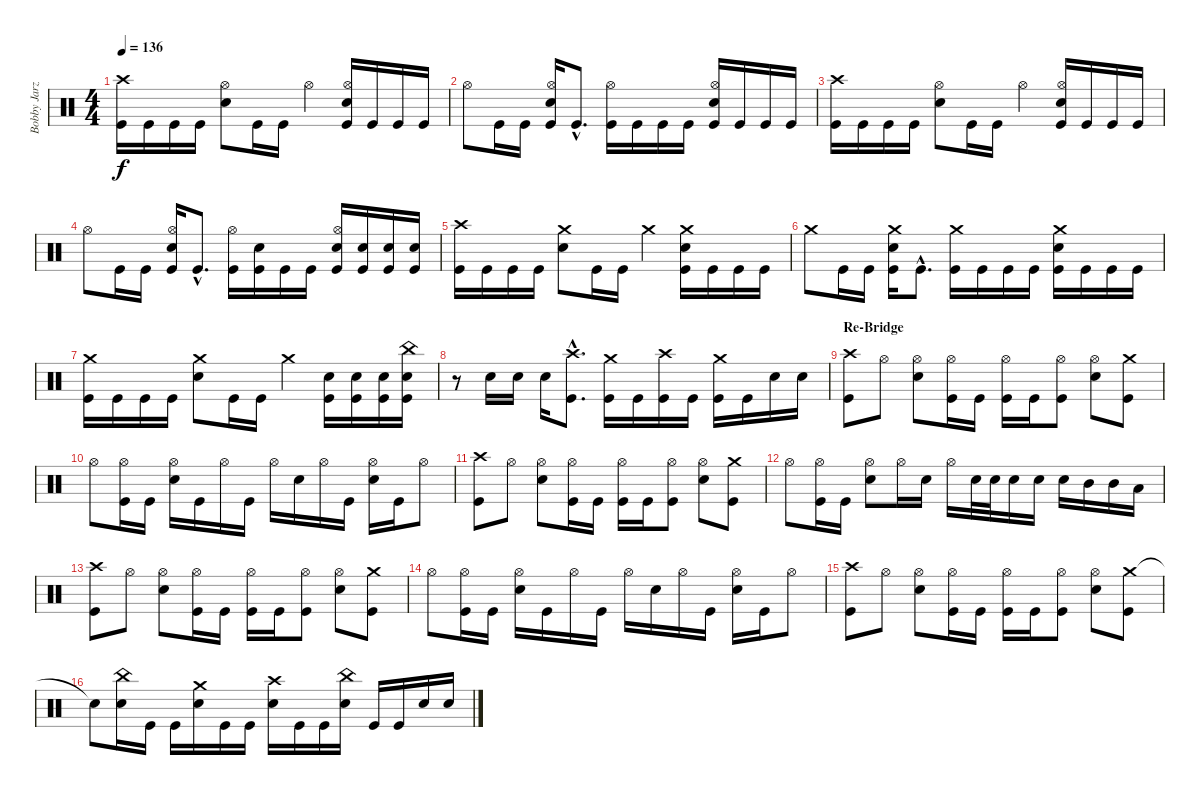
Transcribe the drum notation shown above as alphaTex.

\track ("Bobby Jarzombek" "Bobby Jarz") {instrument percussion}
\staff {score}
\articulation defaults
\ts (4 4)
\tempo 136
\clef neutral
\ks c
("Crash high (hit)" "Kick (hit)").16{dy f} "Kick (hit)".16 "Kick (hit)".16 "Kick (hit)".16 ("Hi-Hat (open)" "Electric Snare (hit)").8 "Kick (hit)".16 "Kick (hit)".16 "Hi-Hat (open)".4 ("Hi-Hat (open)" "Electric Snare (hit)" "Kick (hit)").16 "Kick (hit)".16 "Kick (hit)".16 "Kick (hit)".16 |
"Hi-Hat (open)".8 "Kick (hit)".16 "Kick (hit)".16 ("Hi-Hat (open)" "Electric Snare (hit)" "Kick (hit)").16 "Kick (hit)"{hac}.8{d} ("Hi-Hat (open)" "Kick (hit)").16 "Kick (hit)".16 "Kick (hit)".16 "Kick (hit)".16 ("Hi-Hat (open)" "Electric Snare (hit)" "Kick (hit)").16 "Kick (hit)".16 "Kick (hit)".16 "Kick (hit)".16 |
("Crash high (hit)" "Kick (hit)").16 "Kick (hit)".16 "Kick (hit)".16 "Kick (hit)".16 ("Hi-Hat (open)" "Electric Snare (hit)").8 "Kick (hit)".16 "Kick (hit)".16 "Hi-Hat (open)".4 ("Hi-Hat (open)" "Electric Snare (hit)" "Kick (hit)").16 "Kick (hit)".16 "Kick (hit)".16 "Kick (hit)".16 |
"Hi-Hat (open)".8 "Kick (hit)".16 "Kick (hit)".16 ("Hi-Hat (open)" "Electric Snare (hit)" "Kick (hit)").16 "Kick (hit)"{hac}.8{d} ("Hi-Hat (open)" "Kick (hit)").16 ("Electric Snare (hit)" "Kick (hit)").16 "Kick (hit)".16 "Kick (hit)".16 ("Hi-Hat (open)" "Electric Snare (hit)" "Kick (hit)").16 ("Electric Snare (hit)" "Kick (hit)").16 ("Electric Snare (hit)" "Kick (hit)").16 ("Electric Snare (hit)" "Kick (hit)").16 |
("Crash high (hit)" "Kick (hit)").16 "Kick (hit)".16 "Kick (hit)".16 "Kick (hit)".16 ("Crash medium (hit)" "Electric Snare (hit)").8 "Kick (hit)".16 "Kick (hit)".16 "Crash medium (hit)".4 ("Crash medium (hit)" "Electric Snare (hit)" "Kick (hit)").16 "Kick (hit)".16 "Kick (hit)".16 "Kick (hit)".16 |
"Crash medium (hit)".8 "Kick (hit)".16 "Kick (hit)".16 ("Crash medium (hit)" "Electric Snare (hit)" "Kick (hit)").16 "Kick (hit)"{hac}.8{d} ("Crash medium (hit)" "Kick (hit)").16 "Kick (hit)".16 "Kick (hit)".16 "Kick (hit)".16 ("Crash medium (hit)" "Electric Snare (hit)" "Kick (hit)").16 "Kick (hit)".16 "Kick (hit)".16 "Kick (hit)".16 |
("Crash medium (hit)" "Kick (hit)").16 "Kick (hit)".16 "Kick (hit)".16 "Kick (hit)".16 ("Crash medium (hit)" "Electric Snare (hit)").8 "Kick (hit)".16 "Kick (hit)".16 "Crash medium (hit)".4 ("Electric Snare (hit)" "Kick (hit)").16 ("Electric Snare (hit)" "Kick (hit)").16 ("Electric Snare (hit)" "Kick (hit)").16 ("China (hit)" "Electric Snare (hit)" "Kick (hit)").16 |
r.8 "Electric Snare (hit)".16 "Electric Snare (hit)".16 "Electric Snare (hit)".16 ("Crash high (hit)"{hac} "Kick (hit)"{hac}).8{d} ("Crash medium (hit)" "Kick (hit)").16 "Kick (hit)".16 ("Crash high (hit)" "Kick (hit)").16 "Kick (hit)".16 ("Crash medium (hit)" "Kick (hit)").16 "Kick (hit)".16 "Electric Snare (hit)".16 "Electric Snare (hit)".16 |
\section ("" "Re-Bridge")
("Crash high (hit)" "Kick (hit)").8 "Hi-Hat (open)".8 ("Hi-Hat (open)" "Electric Snare (hit)").8 ("Hi-Hat (open)" "Kick (hit)").16 "Kick (hit)".16 ("Hi-Hat (open)" "Kick (hit)").16 "Kick (hit)".16 ("Hi-Hat (open)" "Kick (hit)").8 ("Hi-Hat (open)" "Electric Snare (hit)").8 ("Crash medium (hit)" "Kick (hit)").8 |
"Hi-Hat (open)".8 ("Hi-Hat (open)" "Kick (hit)").16 "Kick (hit)".16 ("Hi-Hat (open)" "Electric Snare (hit)").16 "Kick (hit)".16 "Hi-Hat (open)".16 "Kick (hit)".16 "Hi-Hat (open)".16 "Electric Snare (hit)".16 "Hi-Hat (open)".16 "Kick (hit)".16 ("Hi-Hat (open)" "Electric Snare (hit)").16 "Kick (hit)".16 "Hi-Hat (open)".8 |
("Crash high (hit)" "Kick (hit)").8 "Hi-Hat (open)".8 ("Hi-Hat (open)" "Electric Snare (hit)").8 ("Hi-Hat (open)" "Kick (hit)").16 "Kick (hit)".16 ("Hi-Hat (open)" "Kick (hit)").16 "Kick (hit)".16 ("Hi-Hat (open)" "Kick (hit)").8 ("Hi-Hat (open)" "Electric Snare (hit)").8 ("Crash medium (hit)" "Kick (hit)").8 |
"Hi-Hat (open)".8 ("Hi-Hat (open)" "Kick (hit)").16 "Kick (hit)".16 ("Hi-Hat (open)" "Electric Snare (hit)").8 "Hi-Hat (open)".16 "Electric Snare (hit)".16 "Hi-Hat (open)".16 "Electric Snare (hit)".32 "Electric Snare (hit)".32 "Electric Snare (hit)".16 "Electric Snare (hit)".16 "Electric Snare (hit)".16 "Mid Tom (hit)".16 "Mid Tom (hit)".16 "Low Tom (hit)".16 |
("Crash high (hit)" "Kick (hit)").8 "Hi-Hat (open)".8 ("Hi-Hat (open)" "Electric Snare (hit)").8 ("Hi-Hat (open)" "Kick (hit)").16 "Kick (hit)".16 ("Hi-Hat (open)" "Kick (hit)").16 "Kick (hit)".16 ("Hi-Hat (open)" "Kick (hit)").8 ("Hi-Hat (open)" "Electric Snare (hit)").8 ("Crash medium (hit)" "Kick (hit)").8 |
"Hi-Hat (open)".8 ("Hi-Hat (open)" "Kick (hit)").16 "Kick (hit)".16 ("Hi-Hat (open)" "Electric Snare (hit)").16 "Kick (hit)".16 "Hi-Hat (open)".16 "Kick (hit)".16 "Hi-Hat (open)".16 "Electric Snare (hit)".16 "Hi-Hat (open)".16 "Kick (hit)".16 ("Hi-Hat (open)" "Electric Snare (hit)").16 "Kick (hit)".16 "Hi-Hat (open)".8 |
("Crash high (hit)" "Kick (hit)").8 "Hi-Hat (open)".8 ("Hi-Hat (open)" "Electric Snare (hit)").8 ("Hi-Hat (open)" "Kick (hit)").16 "Kick (hit)".16 ("Hi-Hat (open)" "Kick (hit)").16 "Kick (hit)".16 ("Hi-Hat (open)" "Kick (hit)").8 ("Hi-Hat (open)" "Electric Snare (hit)").8 ("Crash medium (hit)" "Kick (hit)").8 |
"Snare (hit)"{t}.8 ("China (hit)" "Electric Snare (hit)").16 "Kick (hit)".16 "Kick (hit)".16 ("Crash medium (hit)" "Electric Snare (hit)").16 "Kick (hit)".16 "Kick (hit)".16 ("Crash high (hit)" "Electric Snare (hit)").16 "Kick (hit)".16 "Kick (hit)".16 ("China (hit)" "Electric Snare (hit)").16 "Kick (hit)".16 "Kick (hit)".16 "Electric Snare (hit)".16 "Electric Snare (hit)".16
